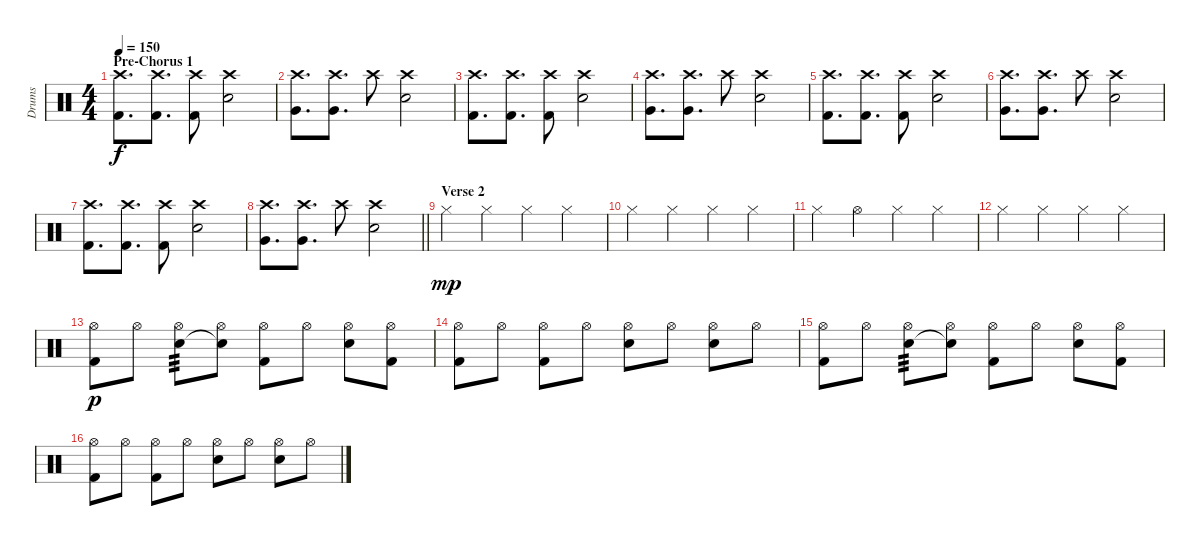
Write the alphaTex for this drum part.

\track ("Drums" "Drums") {instrument percussion}
\staff {score}
\articulation defaults
\ts (4 4)
\section ("" "Pre-Chorus 1")
\tempo 150
\clef neutral
\ks c
("Crash high (hit)" "Kick (hit) 2").8{d dy f} ("Crash high (hit)" "Kick (hit) 2").8{d} ("Crash high (hit)" "Kick (hit) 2").8 ("Crash high (hit)" "Electric Snare (hit)").2 |
("Crash high (hit)" "Very Low Tom (hit)").8{d} ("Crash high (hit)" "Very Low Tom (hit)").8{d} "Crash high (hit)".8 ("Crash high (hit)" "Electric Snare (hit)").2 |
("Crash high (hit)" "Kick (hit) 2").8{d} ("Crash high (hit)" "Kick (hit) 2").8{d} ("Crash high (hit)" "Kick (hit) 2").8 ("Crash high (hit)" "Electric Snare (hit)").2 |
("Crash high (hit)" "Very Low Tom (hit)").8{d} ("Crash high (hit)" "Very Low Tom (hit)").8{d} "Crash high (hit)".8 ("Crash high (hit)" "Electric Snare (hit)").2 |
("Crash high (hit)" "Kick (hit) 2").8{d} ("Crash high (hit)" "Kick (hit) 2").8{d} ("Crash high (hit)" "Kick (hit) 2").8 ("Crash high (hit)" "Electric Snare (hit)").2 |
("Crash high (hit)" "Very Low Tom (hit)").8{d} ("Crash high (hit)" "Very Low Tom (hit)").8{d} "Crash high (hit)".8 ("Crash high (hit)" "Electric Snare (hit)").2 |
("Crash high (hit)" "Kick (hit) 2").8{d} ("Crash high (hit)" "Kick (hit) 2").8{d} ("Crash high (hit)" "Kick (hit) 2").8 ("Crash high (hit)" "Electric Snare (hit)").2 |
\barLineRight lightlight
("Crash high (hit)" "Very Low Tom (hit)").8{d} ("Crash high (hit)" "Very Low Tom (hit)").8{d} "Crash high (hit)".8 ("Crash high (hit)" "Electric Snare (hit)").2 |
\section ("" "Verse 2")
"Hi-Hat (closed)".4{dy mp} "Hi-Hat (closed)".4 "Hi-Hat (closed)".4 "Hi-Hat (closed)".4 |
"Hi-Hat (closed)".4 "Hi-Hat (closed)".4 "Hi-Hat (closed)".4 "Hi-Hat (closed)".4 |
"Hi-Hat (closed)".4 "Hi-Hat (open)".4 "Hi-Hat (closed)".4 "Hi-Hat (closed)".4 |
"Hi-Hat (closed)".4 "Hi-Hat (closed)".4 "Hi-Hat (closed)".4 "Hi-Hat (closed)".4 |
("Hi-Hat (open)" "Kick (hit) 2").8{dy p} "Hi-Hat (open)".8 ("Hi-Hat (open)" "Electric Snare (hit)").8{tp 3} ("Hi-Hat (open)" "Electric Snare (hit)"{t}).8 ("Hi-Hat (open)" "Kick (hit) 2").8 "Hi-Hat (open)".8 ("Hi-Hat (open)" "Electric Snare (hit)").8 ("Hi-Hat (open)" "Kick (hit) 2").8 |
("Hi-Hat (open)" "Kick (hit) 2").8 "Hi-Hat (open)".8 ("Hi-Hat (open)" "Kick (hit) 2").8 "Hi-Hat (open)".8 ("Hi-Hat (open)" "Electric Snare (hit)").8 "Hi-Hat (open)".8 ("Hi-Hat (open)" "Electric Snare (hit)").8 "Hi-Hat (open)".8 |
("Hi-Hat (open)" "Kick (hit) 2").8 "Hi-Hat (open)".8 ("Hi-Hat (open)" "Electric Snare (hit)").8{tp 3} ("Hi-Hat (open)" "Electric Snare (hit)"{t}).8 ("Hi-Hat (open)" "Kick (hit) 2").8 "Hi-Hat (open)".8 ("Hi-Hat (open)" "Electric Snare (hit)").8 ("Hi-Hat (open)" "Kick (hit) 2").8 |
("Hi-Hat (open)" "Kick (hit) 2").8 "Hi-Hat (open)".8 ("Hi-Hat (open)" "Kick (hit) 2").8 "Hi-Hat (open)".8 ("Hi-Hat (open)" "Electric Snare (hit)").8 "Hi-Hat (open)".8 ("Hi-Hat (open)" "Electric Snare (hit)").8 "Hi-Hat (open)".8
